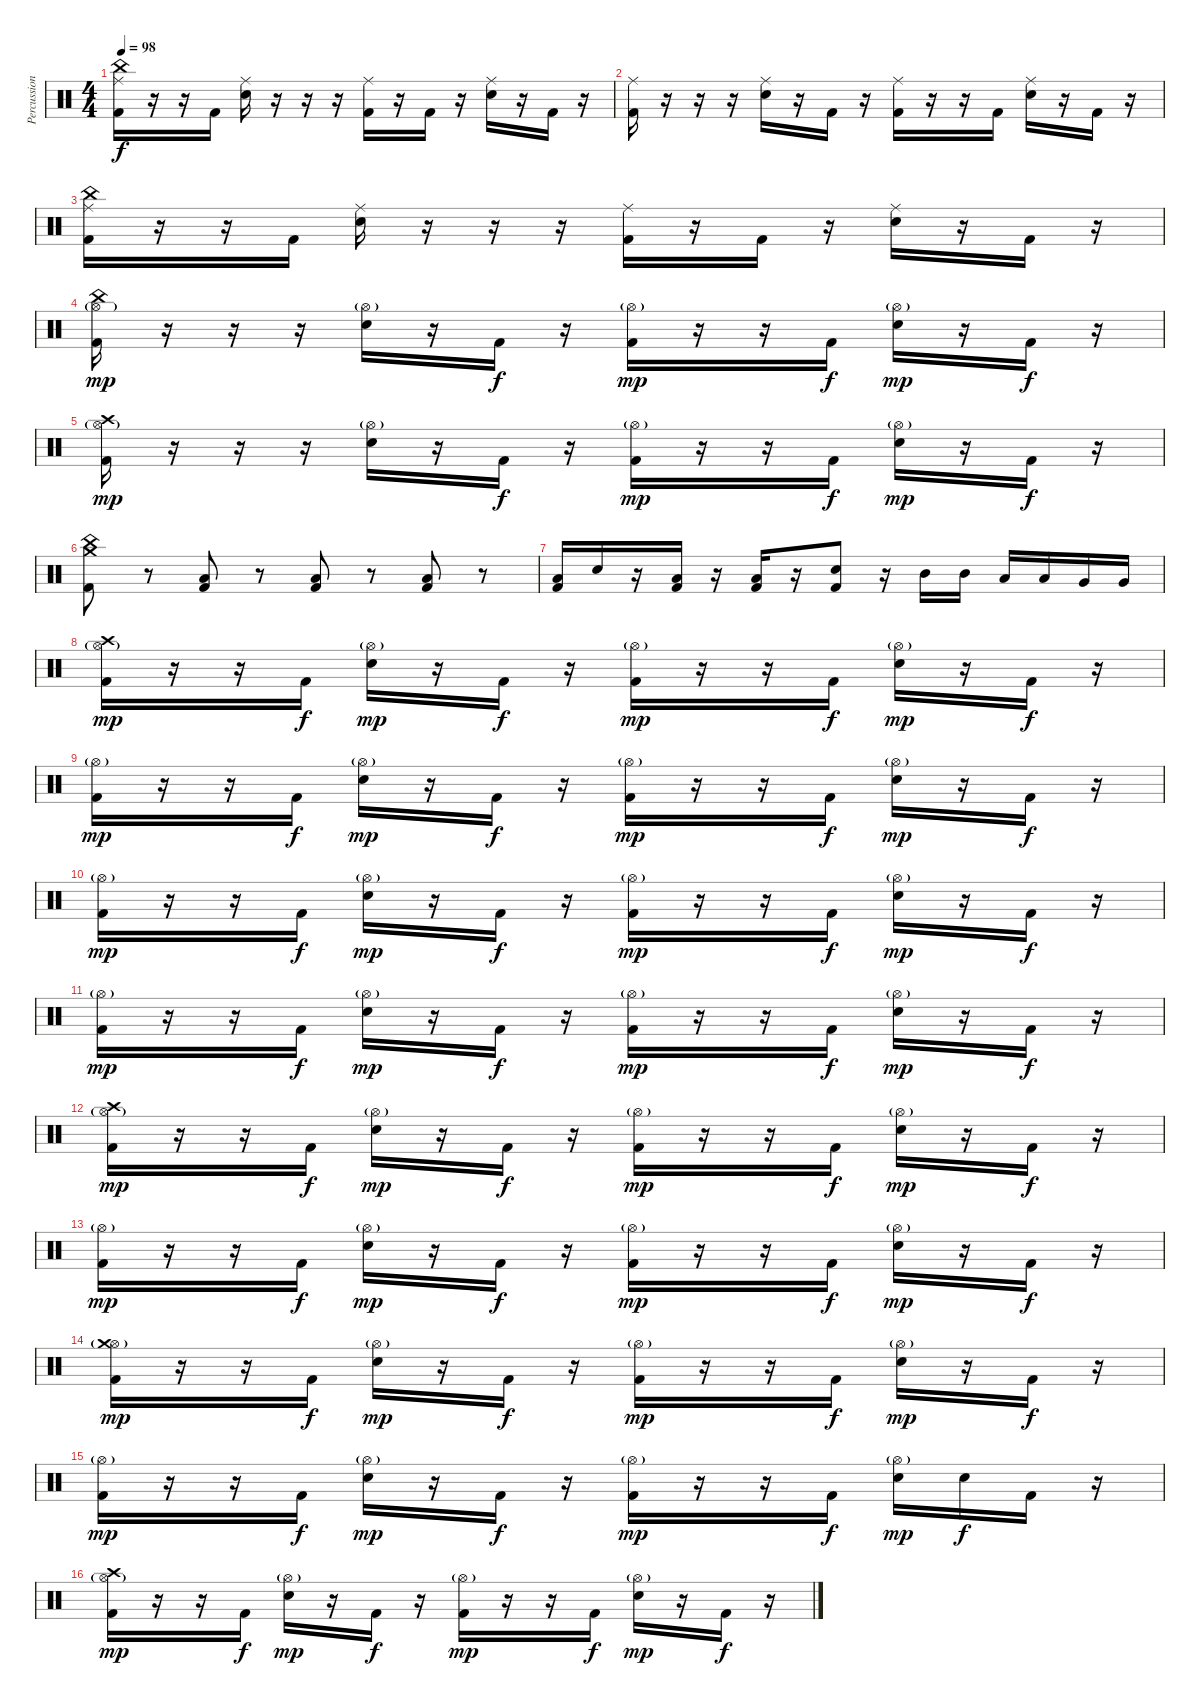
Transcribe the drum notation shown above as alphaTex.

\track ("Percussions" "Percussion") {instrument percussion}
\staff {score}
\articulation defaults
\ts (4 4)
\tempo 98
\clef neutral
\ks c
("Ride (middle)" "China (hit)" "Kick (hit) 2").16{dy f} r.16 r.16 "Kick (hit) 2".16 ("Ride (middle)" "Snare (hit) 2").16 r.16 r.16 r.16 ("Ride (middle)" "Kick (hit) 2").16 r.16 "Kick (hit) 2".16 r.16 ("Ride (middle)" "Snare (hit) 2").16 r.16 "Kick (hit) 2".16 r.16 |
("Ride (middle)" "Kick (hit) 2").16 r.16 r.16 r.16 ("Ride (middle)" "Snare (hit) 2").16 r.16 "Kick (hit) 2".16 r.16 ("Ride (middle)" "Kick (hit) 2").16 r.16 r.16 "Kick (hit) 2".16 ("Ride (middle)" "Snare (hit) 2").16 r.16 "Kick (hit) 2".16 r.16 |
("Ride (middle)" "China (hit)" "Kick (hit) 2").16 r.16 r.16 "Kick (hit) 2".16 ("Ride (middle)" "Snare (hit) 2").16 r.16 r.16 r.16 ("Ride (middle)" "Kick (hit) 2").16 r.16 "Kick (hit) 2".16 r.16 ("Ride (middle)" "Snare (hit) 2").16 r.16 "Kick (hit) 2".16 r.16 |
("Hi-Hat (open)"{g} "China (hit)" "Kick (hit) 2").16{dy mp} r.16 r.16 r.16 ("Hi-Hat (open)"{g} "Snare (hit) 2").16 r.16 "Kick (hit) 2".16{dy f} r.16 ("Hi-Hat (open)"{g} "Kick (hit) 2").16{dy mp} r.16 r.16 "Kick (hit) 2".16{dy f} ("Hi-Hat (open)"{g} "Snare (hit) 2").16{dy mp} r.16 "Kick (hit) 2".16{dy f} r.16 |
("Hi-Hat (open)"{g} "Crash high (hit)" "Kick (hit) 2").16{dy mp} r.16 r.16 r.16 ("Hi-Hat (open)"{g} "Snare (hit) 2").16 r.16 "Kick (hit) 2".16{dy f} r.16 ("Hi-Hat (open)"{g} "Kick (hit) 2").16{dy mp} r.16 r.16 "Kick (hit) 2".16{dy f} ("Hi-Hat (open)"{g} "Snare (hit) 2").16{dy mp} r.16 "Kick (hit) 2".16{dy f} r.16 |
("China (hit)" "Crash medium (hit)" "Kick (hit) 2").8 r.8 ("Low Floor Tom (hit)" "Kick (hit) 2").8 r.8 ("Low Floor Tom (hit)" "Kick (hit) 2").8 r.8 ("Low Floor Tom (hit)" "Kick (hit) 2").8 r.8 |
("Low Floor Tom (hit)" "Kick (hit) 2").16 "Snare (hit) 2".16 r.16 ("Low Tom (hit)" "Kick (hit) 2").16 r.16 ("Kick (hit) 2" "Low Tom (hit)").16 r.16 ("Snare (hit) 2" "Kick (hit) 2").8 r.16 "Mid Tom (hit)".16 "Mid Tom (hit)".16 "Low Tom (hit)".16 "Low Tom (hit)".16 "Very Low Tom (hit)".16 "Very Low Tom (hit)".16 |
("Hi-Hat (open)"{g} "Crash high (hit)" "Kick (hit) 2").16{dy mp} r.16 r.16 "Kick (hit) 2".16{dy f} ("Hi-Hat (open)"{g} "Snare (hit) 2").16{dy mp} r.16 "Kick (hit) 2".16{dy f} r.16 ("Hi-Hat (open)"{g} "Kick (hit) 2").16{dy mp} r.16 r.16 "Kick (hit) 2".16{dy f} ("Hi-Hat (open)"{g} "Snare (hit) 2").16{dy mp} r.16 "Kick (hit) 2".16{dy f} r.16 |
("Hi-Hat (open)"{g} "Kick (hit) 2").16{dy mp} r.16 r.16 "Kick (hit) 2".16{dy f} ("Hi-Hat (open)"{g} "Snare (hit) 2").16{dy mp} r.16 "Kick (hit) 2".16{dy f} r.16 ("Hi-Hat (open)"{g} "Kick (hit) 2").16{dy mp} r.16 r.16 "Kick (hit) 2".16{dy f} ("Hi-Hat (open)"{g} "Snare (hit) 2").16{dy mp} r.16 "Kick (hit) 2".16{dy f} r.16 |
("Hi-Hat (open)"{g} "Kick (hit) 2").16{dy mp} r.16 r.16 "Kick (hit) 2".16{dy f} ("Hi-Hat (open)"{g} "Snare (hit) 2").16{dy mp} r.16 "Kick (hit) 2".16{dy f} r.16 ("Hi-Hat (open)"{g} "Kick (hit) 2").16{dy mp} r.16 r.16 "Kick (hit) 2".16{dy f} ("Hi-Hat (open)"{g} "Snare (hit) 2").16{dy mp} r.16 "Kick (hit) 2".16{dy f} r.16 |
("Hi-Hat (open)"{g} "Kick (hit) 2").16{dy mp} r.16 r.16 "Kick (hit) 2".16{dy f} ("Hi-Hat (open)"{g} "Snare (hit) 2").16{dy mp} r.16 "Kick (hit) 2".16{dy f} r.16 ("Hi-Hat (open)"{g} "Kick (hit) 2").16{dy mp} r.16 r.16 "Kick (hit) 2".16{dy f} ("Hi-Hat (open)"{g} "Snare (hit) 2").16{dy mp} r.16 "Kick (hit) 2".16{dy f} r.16 |
("Hi-Hat (open)"{g} "Crash high (hit)" "Kick (hit) 2").16{dy mp} r.16 r.16 "Kick (hit) 2".16{dy f} ("Hi-Hat (open)"{g} "Snare (hit) 2").16{dy mp} r.16 "Kick (hit) 2".16{dy f} r.16 ("Hi-Hat (open)"{g} "Kick (hit) 2").16{dy mp} r.16 r.16 "Kick (hit) 2".16{dy f} ("Hi-Hat (open)"{g} "Snare (hit) 2").16{dy mp} r.16 "Kick (hit) 2".16{dy f} r.16 |
("Hi-Hat (open)"{g} "Kick (hit) 2").16{dy mp} r.16 r.16 "Kick (hit) 2".16{dy f} ("Hi-Hat (open)"{g} "Snare (hit) 2").16{dy mp} r.16 "Kick (hit) 2".16{dy f} r.16 ("Hi-Hat (open)"{g} "Kick (hit) 2").16{dy mp} r.16 r.16 "Kick (hit) 2".16{dy f} ("Hi-Hat (open)"{g} "Snare (hit) 2").16{dy mp} r.16 "Kick (hit) 2".16{dy f} r.16 |
("Hi-Hat (open)"{g} "Crash medium (hit)" "Kick (hit) 2").16{dy mp} r.16 r.16 "Kick (hit) 2".16{dy f} ("Hi-Hat (open)"{g} "Snare (hit) 2").16{dy mp} r.16 "Kick (hit) 2".16{dy f} r.16 ("Hi-Hat (open)"{g} "Kick (hit) 2").16{dy mp} r.16 r.16 "Kick (hit) 2".16{dy f} ("Hi-Hat (open)"{g} "Snare (hit) 2").16{dy mp} r.16 "Kick (hit) 2".16{dy f} r.16 |
("Hi-Hat (open)"{g} "Kick (hit) 2").16{dy mp} r.16 r.16 "Kick (hit) 2".16{dy f} ("Hi-Hat (open)"{g} "Snare (hit) 2").16{dy mp} r.16 "Kick (hit) 2".16{dy f} r.16 ("Hi-Hat (open)"{g} "Kick (hit) 2").16{dy mp} r.16 r.16 "Kick (hit) 2".16{dy f} ("Hi-Hat (open)"{g} "Snare (hit) 2").16{dy mp} "Snare (hit) 2".16{dy f} "Kick (hit) 2".16 r.16 |
("Hi-Hat (open)"{g} "Crash high (hit)" "Kick (hit) 2").16{dy mp} r.16 r.16 "Kick (hit) 2".16{dy f} ("Hi-Hat (open)"{g} "Snare (hit) 2").16{dy mp} r.16 "Kick (hit) 2".16{dy f} r.16 ("Hi-Hat (open)"{g} "Kick (hit) 2").16{dy mp} r.16 r.16 "Kick (hit) 2".16{dy f} ("Hi-Hat (open)"{g} "Snare (hit) 2").16{dy mp} r.16 "Kick (hit) 2".16{dy f} r.16
